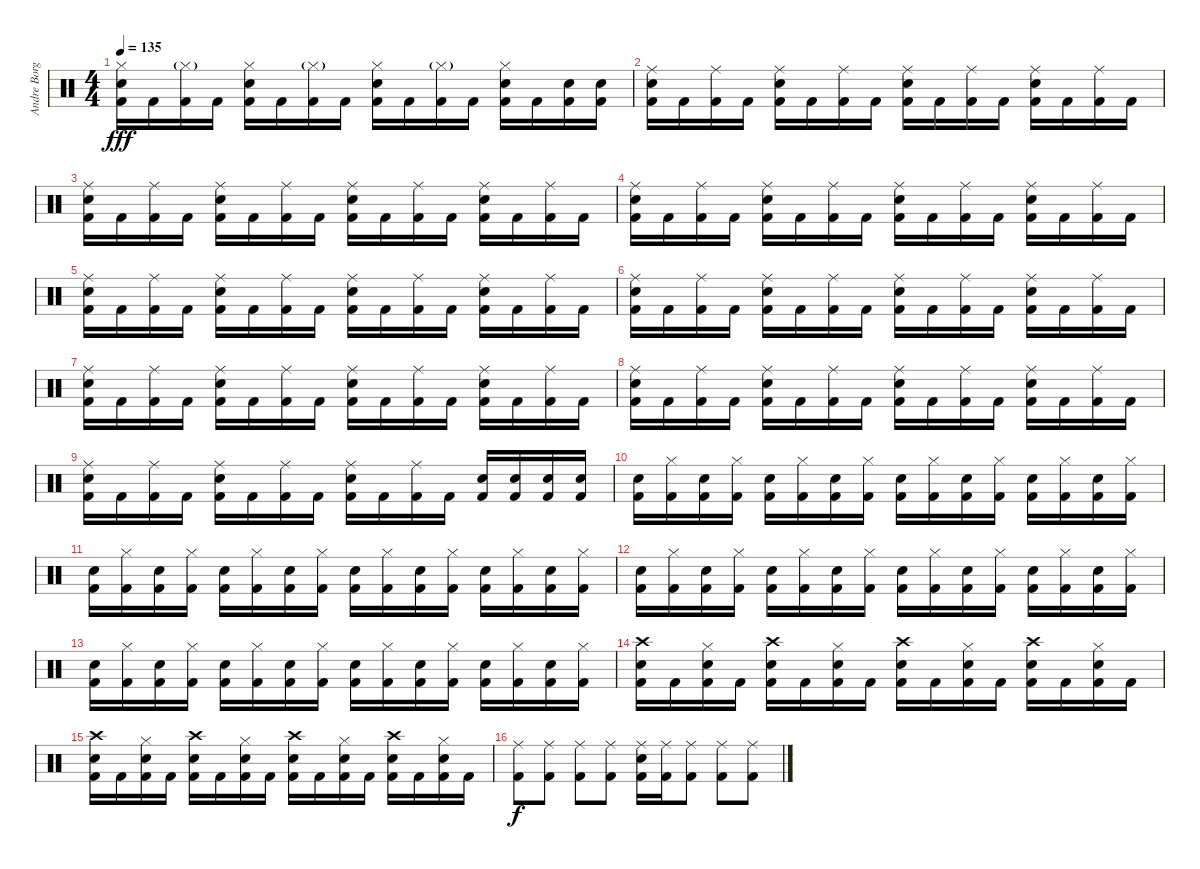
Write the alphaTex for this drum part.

\track ("Andre Borgman" "Andre Borg") {instrument percussion}
\staff {score}
\articulation defaults
\ts (4 4)
\tempo 135
\clef neutral
\ks c
("Hi-Hat (closed)" "Snare (hit) 2" "Kick (hit) 2").16{dy fff} "Kick (hit) 2".16 ("Hi-Hat (closed)"{g} "Kick (hit) 2").16 "Kick (hit) 2".16 ("Hi-Hat (closed)" "Snare (hit) 2" "Kick (hit) 2").16 "Kick (hit) 2".16 ("Hi-Hat (closed)"{g} "Kick (hit) 2").16 "Kick (hit) 2".16 ("Hi-Hat (closed)" "Snare (hit) 2" "Kick (hit) 2").16 "Kick (hit) 2".16 ("Hi-Hat (closed)"{g} "Kick (hit) 2").16 "Kick (hit) 2".16 ("Hi-Hat (closed)" "Snare (hit) 2" "Kick (hit) 2").16 "Kick (hit) 2".16 ("Snare (hit) 2" "Kick (hit) 2").16 ("Snare (hit) 2" "Kick (hit) 2").16 |
("Ride (middle)" "Snare (hit) 2" "Kick (hit) 2").16 "Kick (hit) 2".16 ("Ride (middle)" "Kick (hit) 2").16 "Kick (hit) 2".16 ("Ride (middle)" "Snare (hit) 2" "Kick (hit) 2").16 "Kick (hit) 2".16 ("Ride (middle)" "Kick (hit) 2").16 "Kick (hit) 2".16 ("Ride (middle)" "Snare (hit) 2" "Kick (hit) 2").16 "Kick (hit) 2".16 ("Ride (middle)" "Kick (hit) 2").16 "Kick (hit) 2".16 ("Ride (middle)" "Snare (hit) 2" "Kick (hit) 2").16 "Kick (hit) 2".16 ("Ride (middle)" "Kick (hit) 2").16 "Kick (hit) 2".16 |
("Ride (middle)" "Snare (hit) 2" "Kick (hit) 2").16 "Kick (hit) 2".16 ("Ride (middle)" "Kick (hit) 2").16 "Kick (hit) 2".16 ("Ride (middle)" "Snare (hit) 2" "Kick (hit) 2").16 "Kick (hit) 2".16 ("Ride (middle)" "Kick (hit) 2").16 "Kick (hit) 2".16 ("Ride (middle)" "Snare (hit) 2" "Kick (hit) 2").16 "Kick (hit) 2".16 ("Ride (middle)" "Kick (hit) 2").16 "Kick (hit) 2".16 ("Ride (middle)" "Snare (hit) 2" "Kick (hit) 2").16 "Kick (hit) 2".16 ("Ride (middle)" "Kick (hit) 2").16 "Kick (hit) 2".16 |
("Ride (middle)" "Snare (hit) 2" "Kick (hit) 2").16 "Kick (hit) 2".16 ("Ride (middle)" "Kick (hit) 2").16 "Kick (hit) 2".16 ("Ride (middle)" "Snare (hit) 2" "Kick (hit) 2").16 "Kick (hit) 2".16 ("Ride (middle)" "Kick (hit) 2").16 "Kick (hit) 2".16 ("Ride (middle)" "Snare (hit) 2" "Kick (hit) 2").16 "Kick (hit) 2".16 ("Ride (middle)" "Kick (hit) 2").16 "Kick (hit) 2".16 ("Ride (middle)" "Snare (hit) 2" "Kick (hit) 2").16 "Kick (hit) 2".16 ("Ride (middle)" "Kick (hit) 2").16 "Kick (hit) 2".16 |
("Ride (middle)" "Snare (hit) 2" "Kick (hit) 2").16 "Kick (hit) 2".16 ("Ride (middle)" "Kick (hit) 2").16 "Kick (hit) 2".16 ("Ride (middle)" "Snare (hit) 2" "Kick (hit) 2").16 "Kick (hit) 2".16 ("Ride (middle)" "Kick (hit) 2").16 "Kick (hit) 2".16 ("Ride (middle)" "Snare (hit) 2" "Kick (hit) 2").16 "Kick (hit) 2".16 ("Ride (middle)" "Kick (hit) 2").16 "Kick (hit) 2".16 ("Ride (middle)" "Snare (hit) 2" "Kick (hit) 2").16 "Kick (hit) 2".16 ("Ride (middle)" "Kick (hit) 2").16 "Kick (hit) 2".16 |
("Ride (middle)" "Snare (hit) 2" "Kick (hit) 2").16 "Kick (hit) 2".16 ("Ride (middle)" "Kick (hit) 2").16 "Kick (hit) 2".16 ("Ride (middle)" "Snare (hit) 2" "Kick (hit) 2").16 "Kick (hit) 2".16 ("Ride (middle)" "Kick (hit) 2").16 "Kick (hit) 2".16 ("Ride (middle)" "Snare (hit) 2" "Kick (hit) 2").16 "Kick (hit) 2".16 ("Ride (middle)" "Kick (hit) 2").16 "Kick (hit) 2".16 ("Ride (middle)" "Snare (hit) 2" "Kick (hit) 2").16 "Kick (hit) 2".16 ("Ride (middle)" "Kick (hit) 2").16 "Kick (hit) 2".16 |
("Ride (middle)" "Snare (hit) 2" "Kick (hit) 2").16 "Kick (hit) 2".16 ("Ride (middle)" "Kick (hit) 2").16 "Kick (hit) 2".16 ("Ride (middle)" "Snare (hit) 2" "Kick (hit) 2").16 "Kick (hit) 2".16 ("Ride (middle)" "Kick (hit) 2").16 "Kick (hit) 2".16 ("Ride (middle)" "Snare (hit) 2" "Kick (hit) 2").16 "Kick (hit) 2".16 ("Ride (middle)" "Kick (hit) 2").16 "Kick (hit) 2".16 ("Ride (middle)" "Snare (hit) 2" "Kick (hit) 2").16 "Kick (hit) 2".16 ("Ride (middle)" "Kick (hit) 2").16 "Kick (hit) 2".16 |
("Ride (middle)" "Snare (hit) 2" "Kick (hit) 2").16 "Kick (hit) 2".16 ("Ride (middle)" "Kick (hit) 2").16 "Kick (hit) 2".16 ("Ride (middle)" "Snare (hit) 2" "Kick (hit) 2").16 "Kick (hit) 2".16 ("Ride (middle)" "Kick (hit) 2").16 "Kick (hit) 2".16 ("Ride (middle)" "Snare (hit) 2" "Kick (hit) 2").16 "Kick (hit) 2".16 ("Ride (middle)" "Kick (hit) 2").16 "Kick (hit) 2".16 ("Ride (middle)" "Snare (hit) 2" "Kick (hit) 2").16 "Kick (hit) 2".16 ("Ride (middle)" "Kick (hit) 2").16 "Kick (hit) 2".16 |
("Ride (middle)" "Snare (hit) 2" "Kick (hit) 2").16 "Kick (hit) 2".16 ("Ride (middle)" "Kick (hit) 2").16 "Kick (hit) 2".16 ("Ride (middle)" "Snare (hit) 2" "Kick (hit) 2").16 "Kick (hit) 2".16 ("Ride (middle)" "Kick (hit) 2").16 "Kick (hit) 2".16 ("Ride (middle)" "Snare (hit) 2" "Kick (hit) 2").16 "Kick (hit) 2".16 ("Ride (middle)" "Kick (hit) 2").16 "Kick (hit) 2".16 ("Snare (hit) 2" "Kick (hit) 2").16 ("Snare (hit) 2" "Kick (hit) 2").16 ("Snare (hit) 2" "Kick (hit) 2").16 ("Snare (hit) 2" "Kick (hit) 2").16 |
("Snare (hit) 2" "Kick (hit) 2").16 ("Hi-Hat (closed)" "Kick (hit) 2").16 ("Snare (hit) 2" "Kick (hit) 2").16 ("Hi-Hat (closed)" "Kick (hit) 2").16 ("Snare (hit) 2" "Kick (hit) 2").16 ("Hi-Hat (closed)" "Kick (hit) 2").16 ("Snare (hit) 2" "Kick (hit) 2").16 ("Hi-Hat (closed)" "Kick (hit) 2").16 ("Snare (hit) 2" "Kick (hit) 2").16 ("Hi-Hat (closed)" "Kick (hit) 2").16 ("Snare (hit) 2" "Kick (hit) 2").16 ("Hi-Hat (closed)" "Kick (hit) 2").16 ("Snare (hit) 2" "Kick (hit) 2").16 ("Hi-Hat (closed)" "Kick (hit) 2").16 ("Snare (hit) 2" "Kick (hit) 2").16 ("Hi-Hat (closed)" "Kick (hit) 2").16 |
("Snare (hit) 2" "Kick (hit) 2").16 ("Hi-Hat (closed)" "Kick (hit) 2").16 ("Snare (hit) 2" "Kick (hit) 2").16 ("Hi-Hat (closed)" "Kick (hit) 2").16 ("Snare (hit) 2" "Kick (hit) 2").16 ("Hi-Hat (closed)" "Kick (hit) 2").16 ("Snare (hit) 2" "Kick (hit) 2").16 ("Hi-Hat (closed)" "Kick (hit) 2").16 ("Snare (hit) 2" "Kick (hit) 2").16 ("Hi-Hat (closed)" "Kick (hit) 2").16 ("Snare (hit) 2" "Kick (hit) 2").16 ("Hi-Hat (closed)" "Kick (hit) 2").16 ("Snare (hit) 2" "Kick (hit) 2").16 ("Hi-Hat (closed)" "Kick (hit) 2").16 ("Snare (hit) 2" "Kick (hit) 2").16 ("Hi-Hat (closed)" "Kick (hit) 2").16 |
("Snare (hit) 2" "Kick (hit) 2").16 ("Hi-Hat (closed)" "Kick (hit) 2").16 ("Snare (hit) 2" "Kick (hit) 2").16 ("Hi-Hat (closed)" "Kick (hit) 2").16 ("Snare (hit) 2" "Kick (hit) 2").16 ("Hi-Hat (closed)" "Kick (hit) 2").16 ("Snare (hit) 2" "Kick (hit) 2").16 ("Hi-Hat (closed)" "Kick (hit) 2").16 ("Snare (hit) 2" "Kick (hit) 2").16 ("Hi-Hat (closed)" "Kick (hit) 2").16 ("Snare (hit) 2" "Kick (hit) 2").16 ("Hi-Hat (closed)" "Kick (hit) 2").16 ("Snare (hit) 2" "Kick (hit) 2").16 ("Hi-Hat (closed)" "Kick (hit) 2").16 ("Snare (hit) 2" "Kick (hit) 2").16 ("Hi-Hat (closed)" "Kick (hit) 2").16 |
("Snare (hit) 2" "Kick (hit) 2").16 ("Hi-Hat (closed)" "Kick (hit) 2").16 ("Snare (hit) 2" "Kick (hit) 2").16 ("Hi-Hat (closed)" "Kick (hit) 2").16 ("Snare (hit) 2" "Kick (hit) 2").16 ("Hi-Hat (closed)" "Kick (hit) 2").16 ("Snare (hit) 2" "Kick (hit) 2").16 ("Hi-Hat (closed)" "Kick (hit) 2").16 ("Snare (hit) 2" "Kick (hit) 2").16 ("Hi-Hat (closed)" "Kick (hit) 2").16 ("Snare (hit) 2" "Kick (hit) 2").16 ("Hi-Hat (closed)" "Kick (hit) 2").16 ("Snare (hit) 2" "Kick (hit) 2").16 ("Hi-Hat (closed)" "Kick (hit) 2").16 ("Snare (hit) 2" "Kick (hit) 2").16 ("Hi-Hat (closed)" "Kick (hit) 2").16 |
("Crash high (hit)" "Snare (hit) 2" "Kick (hit) 2").16 "Kick (hit) 2".16 ("Hi-Hat (closed)" "Snare (hit) 2" "Kick (hit) 2").16 "Kick (hit) 2".16 ("Crash high (hit)" "Snare (hit) 2" "Kick (hit) 2").16 "Kick (hit) 2".16 ("Hi-Hat (closed)" "Snare (hit) 2" "Kick (hit) 2").16 "Kick (hit) 2".16 ("Crash high (hit)" "Snare (hit) 2" "Kick (hit) 2").16 "Kick (hit) 2".16 ("Hi-Hat (closed)" "Snare (hit) 2" "Kick (hit) 2").16 "Kick (hit) 2".16 ("Crash high (hit)" "Snare (hit) 2" "Kick (hit) 2").16 "Kick (hit) 2".16 ("Hi-Hat (closed)" "Snare (hit) 2" "Kick (hit) 2").16 "Kick (hit) 2".16 |
("Crash high (hit)" "Snare (hit) 2" "Kick (hit) 2").16 "Kick (hit) 2".16 ("Hi-Hat (closed)" "Snare (hit) 2" "Kick (hit) 2").16 "Kick (hit) 2".16 ("Crash high (hit)" "Snare (hit) 2" "Kick (hit) 2").16 "Kick (hit) 2".16 ("Hi-Hat (closed)" "Snare (hit) 2" "Kick (hit) 2").16 "Kick (hit) 2".16 ("Crash high (hit)" "Snare (hit) 2" "Kick (hit) 2").16 "Kick (hit) 2".16 ("Hi-Hat (closed)" "Snare (hit) 2" "Kick (hit) 2").16 "Kick (hit) 2".16 ("Crash high (hit)" "Snare (hit) 2" "Kick (hit) 2").16 "Kick (hit) 2".16 ("Hi-Hat (closed)" "Snare (hit) 2" "Kick (hit) 2").16 "Kick (hit) 2".16 |
("Ride (middle)" "Kick (hit) 2").8{dy f} ("Ride (middle)" "Kick (hit) 2").8 ("Ride (middle)" "Kick (hit) 2").8 ("Ride (middle)" "Kick (hit) 2").8 ("Ride (middle)" "Snare (hit) 2" "Kick (hit) 2").16 ("Ride (middle)" "Kick (hit) 2").16 ("Ride (middle)" "Kick (hit) 2").8 ("Ride (middle)" "Kick (hit) 2").8 ("Ride (middle)" "Kick (hit) 2").8
